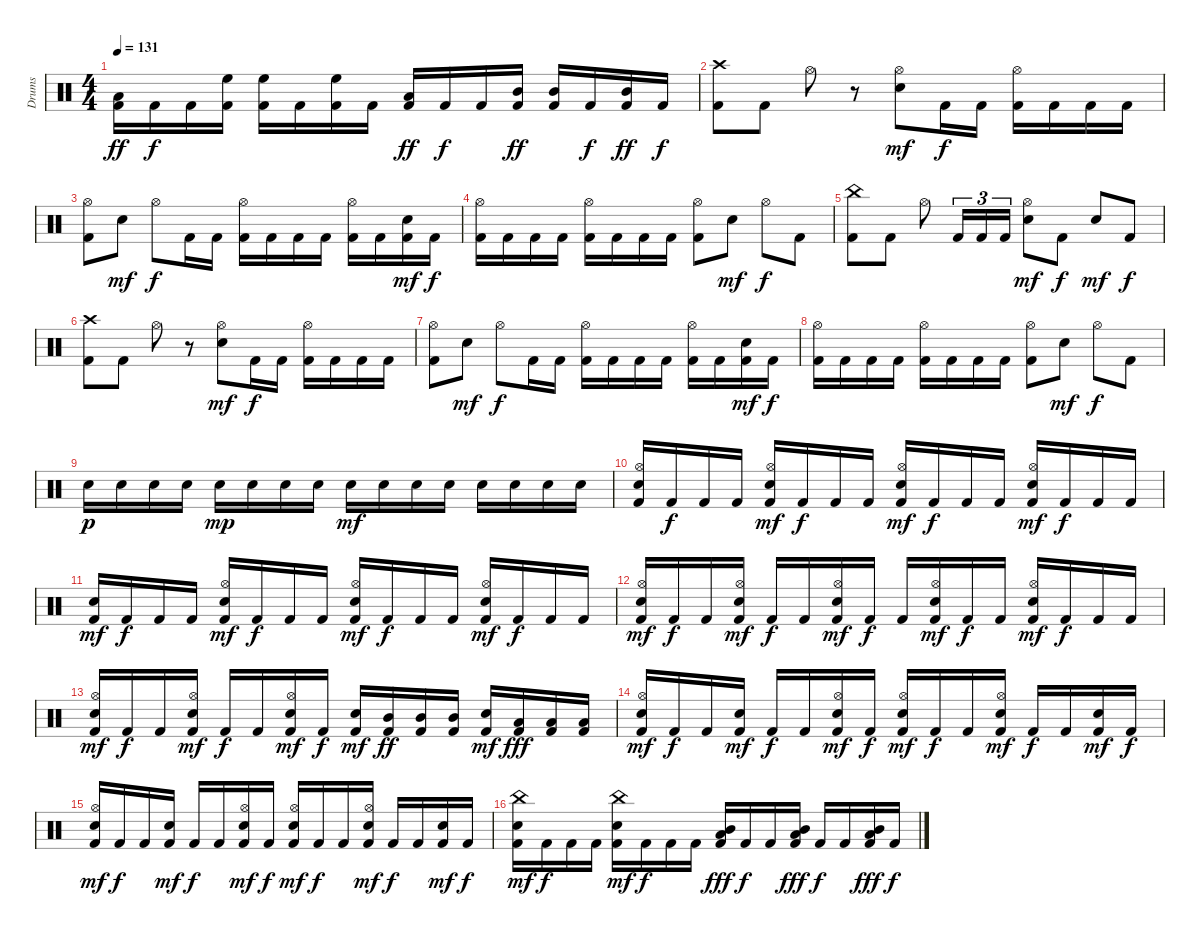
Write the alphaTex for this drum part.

\track ("Drums" "Drums") {instrument percussion}
\staff {score}
\articulation defaults
\ts (4 4)
\tempo 131
\clef neutral
\ks c
("Low Tom (hit)" "Kick (hit) 2").16{dy ff} "Kick (hit) 2".16{dy f} "Kick (hit) 2".16 ("High Floor Tom (hit)" "Kick (hit) 2").16 ("High Floor Tom (hit)" "Kick (hit) 2").16 "Kick (hit) 2".16 ("High Floor Tom (hit)" "Kick (hit) 2").16 "Kick (hit) 2".16 ("Low Tom (hit)" "Kick (hit) 2").16{dy ff} "Kick (hit) 2".16{dy f} "Kick (hit) 2".16 ("Mid Tom (hit)" "Kick (hit) 2").16{dy ff} ("Mid Tom (hit)" "Kick (hit) 2").16 "Kick (hit) 2".16{dy f} ("Mid Tom (hit)" "Kick (hit) 2").16{dy ff} "Kick (hit) 2".16{dy f} |
\section ("" "")
("Crash high (hit)" "Kick (hit) 2").8 "Kick (hit) 2".8 "Hi-Hat (open)".8 r.8 ("Hi-Hat (open)" "Snare (hit) 2").8{dy mf} "Kick (hit) 2".16{dy f} "Kick (hit) 2".16 ("Hi-Hat (open)" "Kick (hit) 2").16 "Kick (hit) 2".16 "Kick (hit) 2".16 "Kick (hit) 2".16 |
("Hi-Hat (open)" "Kick (hit) 2").8 "Snare (hit) 2".8{dy mf} "Hi-Hat (open)".8{dy f} "Kick (hit) 2".16 "Kick (hit) 2".16 ("Hi-Hat (open)" "Kick (hit) 2").16 "Kick (hit) 2".16 "Kick (hit) 2".16 "Kick (hit) 2".16 ("Hi-Hat (open)" "Kick (hit) 2").16 "Kick (hit) 2".16 ("Snare (hit) 2" "Kick (hit) 2").16{dy mf} "Kick (hit) 2".16{dy f} |
("Hi-Hat (open)" "Kick (hit) 2").16 "Kick (hit) 2".16 "Kick (hit) 2".16 "Kick (hit) 2".16 ("Hi-Hat (open)" "Kick (hit) 2").16 "Kick (hit) 2".16 "Kick (hit) 2".16 "Kick (hit) 2".16 ("Hi-Hat (open)" "Kick (hit) 2").8 "Snare (hit) 2".8{dy mf} "Hi-Hat (open)".8{dy f} "Kick (hit) 2".8 |
("China (hit)" "Kick (hit) 2").8 "Kick (hit) 2".8 "Hi-Hat (open)".8 "Kick (hit) 2".16{tu (3 2)} "Kick (hit) 2".16{tu (3 2)} "Kick (hit) 2".16{tu (3 2)} ("Hi-Hat (open)" "Snare (hit) 2").8{dy mf} "Kick (hit) 2".8{dy f} "Snare (hit) 2".8{dy mf} "Kick (hit) 2".8{dy f} |
("Crash high (hit)" "Kick (hit) 2").8 "Kick (hit) 2".8 "Hi-Hat (open)".8 r.8 ("Hi-Hat (open)" "Snare (hit) 2").8{dy mf} "Kick (hit) 2".16{dy f} "Kick (hit) 2".16 ("Hi-Hat (open)" "Kick (hit) 2").16 "Kick (hit) 2".16 "Kick (hit) 2".16 "Kick (hit) 2".16 |
("Hi-Hat (open)" "Kick (hit) 2").8 "Snare (hit) 2".8{dy mf} "Hi-Hat (open)".8{dy f} "Kick (hit) 2".16 "Kick (hit) 2".16 ("Hi-Hat (open)" "Kick (hit) 2").16 "Kick (hit) 2".16 "Kick (hit) 2".16 "Kick (hit) 2".16 ("Hi-Hat (open)" "Kick (hit) 2").16 "Kick (hit) 2".16 ("Snare (hit) 2" "Kick (hit) 2").16{dy mf} "Kick (hit) 2".16{dy f} |
("Hi-Hat (open)" "Kick (hit) 2").16 "Kick (hit) 2".16 "Kick (hit) 2".16 "Kick (hit) 2".16 ("Hi-Hat (open)" "Kick (hit) 2").16 "Kick (hit) 2".16 "Kick (hit) 2".16 "Kick (hit) 2".16 ("Hi-Hat (open)" "Kick (hit) 2").8 "Snare (hit) 2".8{dy mf} "Hi-Hat (open)".8{dy f} "Kick (hit) 2".8 |
"Snare (hit) 2".16{dy p} "Snare (hit) 2".16 "Snare (hit) 2".16 "Snare (hit) 2".16 "Snare (hit) 2".16{dy mp} "Snare (hit) 2".16 "Snare (hit) 2".16 "Snare (hit) 2".16 "Snare (hit) 2".16{dy mf} "Snare (hit) 2".16 "Snare (hit) 2".16 "Snare (hit) 2".16 "Snare (hit) 2".16 "Snare (hit) 2".16 "Snare (hit) 2".16 "Snare (hit) 2".16 |
\section ("" "")
("Hi-Hat (open)" "Snare (hit) 2" "Kick (hit) 2").16 "Kick (hit) 2".16{dy f} "Kick (hit) 2".16 "Kick (hit) 2".16 ("Hi-Hat (open)" "Snare (hit) 2" "Kick (hit) 2").16{dy mf} "Kick (hit) 2".16{dy f} "Kick (hit) 2".16 "Kick (hit) 2".16 ("Hi-Hat (open)" "Snare (hit) 2" "Kick (hit) 2").16{dy mf} "Kick (hit) 2".16{dy f} "Kick (hit) 2".16 "Kick (hit) 2".16 ("Hi-Hat (open)" "Snare (hit) 2" "Kick (hit) 2").16{dy mf} "Kick (hit) 2".16{dy f} "Kick (hit) 2".16 "Kick (hit) 2".16 |
("Snare (hit) 2" "Kick (hit) 2").16{dy mf} "Kick (hit) 2".16{dy f} "Kick (hit) 2".16 "Kick (hit) 2".16 ("Hi-Hat (open)" "Snare (hit) 2" "Kick (hit) 2").16{dy mf} "Kick (hit) 2".16{dy f} "Kick (hit) 2".16 "Kick (hit) 2".16 ("Hi-Hat (open)" "Snare (hit) 2" "Kick (hit) 2").16{dy mf} "Kick (hit) 2".16{dy f} "Kick (hit) 2".16 "Kick (hit) 2".16 ("Hi-Hat (open)" "Snare (hit) 2" "Kick (hit) 2").16{dy mf} "Kick (hit) 2".16{dy f} "Kick (hit) 2".16 "Kick (hit) 2".16 |
("Hi-Hat (open)" "Snare (hit) 2" "Kick (hit) 2").16{dy mf} "Kick (hit) 2".16{dy f} "Kick (hit) 2".16 ("Hi-Hat (open)" "Snare (hit) 2" "Kick (hit) 2").16{dy mf} "Kick (hit) 2".16{dy f} "Kick (hit) 2".16 ("Hi-Hat (open)" "Snare (hit) 2" "Kick (hit) 2").16{dy mf} "Kick (hit) 2".16{dy f} "Kick (hit) 2".16 ("Hi-Hat (open)" "Snare (hit) 2" "Kick (hit) 2").16{dy mf} "Kick (hit) 2".16{dy f} "Kick (hit) 2".16 ("Hi-Hat (open)" "Snare (hit) 2" "Kick (hit) 2").16{dy mf} "Kick (hit) 2".16{dy f} "Kick (hit) 2".16 "Kick (hit) 2".16 |
("Hi-Hat (open)" "Snare (hit) 2" "Kick (hit) 2").16{dy mf} "Kick (hit) 2".16{dy f} "Kick (hit) 2".16 ("Hi-Hat (open)" "Snare (hit) 2" "Kick (hit) 2").16{dy mf} "Kick (hit) 2".16{dy f} "Kick (hit) 2".16 ("Hi-Hat (open)" "Snare (hit) 2" "Kick (hit) 2").16{dy mf} "Kick (hit) 2".16{dy f} ("Snare (hit) 2" "Kick (hit) 2").16{dy mf} ("Mid Tom (hit)" "Kick (hit) 2").16{dy ff} ("Mid Tom (hit)" "Kick (hit) 2").16 ("Mid Tom (hit)" "Kick (hit) 2").16 ("Snare (hit) 2" "Kick (hit) 2").16{dy mf} ("Low Tom (hit)" "Kick (hit) 2").16{dy fff} ("Low Tom (hit)" "Kick (hit) 2").16 ("Low Tom (hit)" "Kick (hit) 2").16 |
("Hi-Hat (open)" "Snare (hit) 2" "Kick (hit) 2").16{dy mf} "Kick (hit) 2".16{dy f} "Kick (hit) 2".16 ("Snare (hit) 2" "Kick (hit) 2").16{dy mf} "Kick (hit) 2".16{dy f} "Kick (hit) 2".16 ("Hi-Hat (open)" "Snare (hit) 2" "Kick (hit) 2").16{dy mf} "Kick (hit) 2".16{dy f} ("Hi-Hat (open)" "Snare (hit) 2" "Kick (hit) 2").16{dy mf} "Kick (hit) 2".16{dy f} "Kick (hit) 2".16 ("Hi-Hat (open)" "Snare (hit) 2" "Kick (hit) 2").16{dy mf} "Kick (hit) 2".16{dy f} "Kick (hit) 2".16 ("Snare (hit) 2" "Kick (hit) 2").16{dy mf} "Kick (hit) 2".16{dy f} |
("Hi-Hat (open)" "Snare (hit) 2" "Kick (hit) 2").16{dy mf} "Kick (hit) 2".16{dy f} "Kick (hit) 2".16 ("Snare (hit) 2" "Kick (hit) 2").16{dy mf} "Kick (hit) 2".16{dy f} "Kick (hit) 2".16 ("Hi-Hat (open)" "Snare (hit) 2" "Kick (hit) 2").16{dy mf} "Kick (hit) 2".16{dy f} ("Hi-Hat (open)" "Snare (hit) 2" "Kick (hit) 2").16{dy mf} "Kick (hit) 2".16{dy f} "Kick (hit) 2".16 ("Hi-Hat (open)" "Snare (hit) 2" "Kick (hit) 2").16{dy mf} "Kick (hit) 2".16{dy f} "Kick (hit) 2".16 ("Snare (hit) 2" "Kick (hit) 2").16{dy mf} "Kick (hit) 2".16{dy f} |
("China (hit)" "Snare (hit) 2" "Kick (hit) 2").16{dy mf} "Kick (hit) 2".16{dy f} "Kick (hit) 2".16 "Kick (hit) 2".16 ("China (hit)" "Snare (hit) 2" "Kick (hit) 2").16{dy mf} "Kick (hit) 2".16{dy f} "Kick (hit) 2".16 "Kick (hit) 2".16 ("Mid Tom (hit)" "Low Tom (hit)" "Kick (hit) 2").16{dy fff} "Kick (hit) 2".16{dy f} "Kick (hit) 2".16 ("Mid Tom (hit)" "Low Tom (hit)" "Kick (hit) 2").16{dy fff} "Kick (hit) 2".16{dy f} "Kick (hit) 2".16 ("Mid Tom (hit)" "Low Tom (hit)" "Kick (hit) 2").16{dy fff} "Kick (hit) 2".16{dy f}
